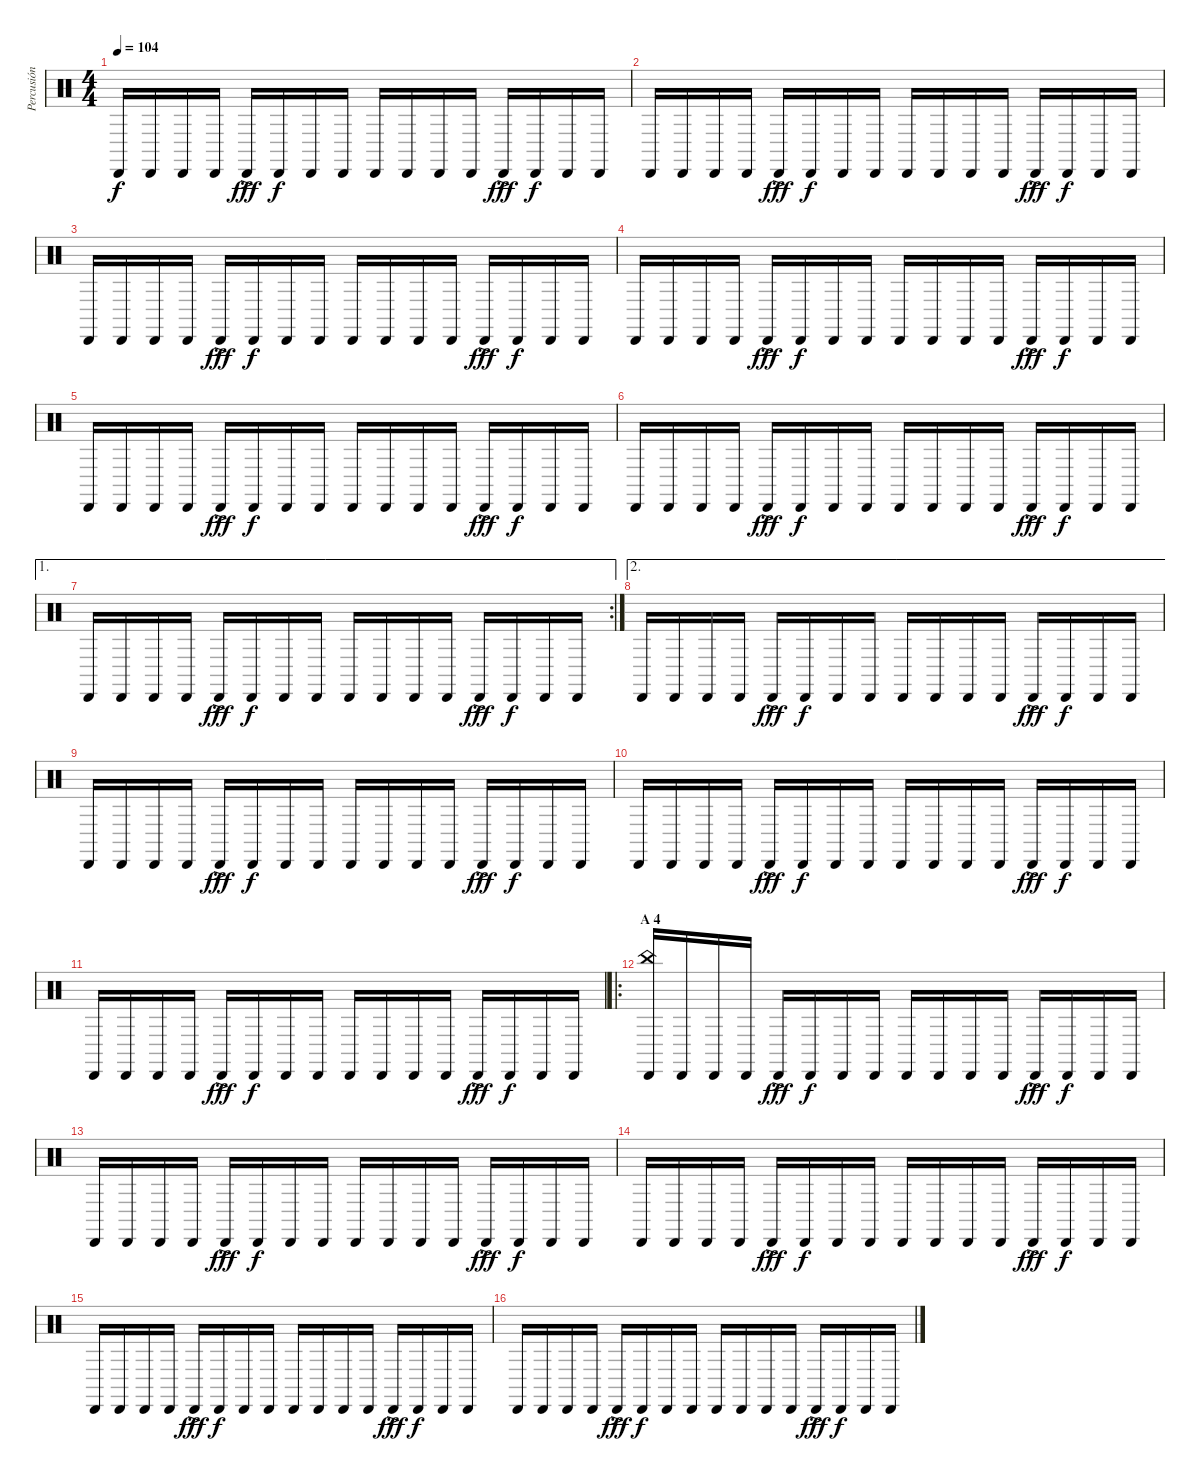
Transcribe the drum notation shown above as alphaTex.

\track ("Percusión" "Percusión") {instrument percussion}
\staff {score}
\articulation defaults
\ts (4 4)
\tempo 104
\clef neutral
\ks c "Cabasa (hit)".16{dy f} "Cabasa (hit)".16 "Cabasa (hit)".16 "Cabasa (hit)".16 "Cabasa (hit)"{ac}.16{dy fff} "Cabasa (hit)".16{dy f} "Cabasa (hit)".16 "Cabasa (hit)".16 "Cabasa (hit)".16 "Cabasa (hit)".16 "Cabasa (hit)".16 "Cabasa (hit)".16 "Cabasa (hit)"{ac}.16{dy fff} "Cabasa (hit)".16{dy f} "Cabasa (hit)".16 "Cabasa (hit)".16
|
"Cabasa (hit)".16 "Cabasa (hit)".16 "Cabasa (hit)".16 "Cabasa (hit)".16 "Cabasa (hit)"{ac}.16{dy fff} "Cabasa (hit)".16{dy f} "Cabasa (hit)".16 "Cabasa (hit)".16 "Cabasa (hit)".16 "Cabasa (hit)".16 "Cabasa (hit)".16 "Cabasa (hit)".16 "Cabasa (hit)"{ac}.16{dy fff} "Cabasa (hit)".16{dy f} "Cabasa (hit)".16 "Cabasa (hit)".16 |
"Cabasa (hit)".16 "Cabasa (hit)".16 "Cabasa (hit)".16 "Cabasa (hit)".16 "Cabasa (hit)"{ac}.16{dy fff} "Cabasa (hit)".16{dy f} "Cabasa (hit)".16 "Cabasa (hit)".16 "Cabasa (hit)".16 "Cabasa (hit)".16 "Cabasa (hit)".16 "Cabasa (hit)".16 "Cabasa (hit)"{ac}.16{dy fff} "Cabasa (hit)".16{dy f} "Cabasa (hit)".16 "Cabasa (hit)".16 |
"Cabasa (hit)".16 "Cabasa (hit)".16 "Cabasa (hit)".16 "Cabasa (hit)".16 "Cabasa (hit)"{ac}.16{dy fff} "Cabasa (hit)".16{dy f} "Cabasa (hit)".16 "Cabasa (hit)".16 "Cabasa (hit)".16 "Cabasa (hit)".16 "Cabasa (hit)".16 "Cabasa (hit)".16 "Cabasa (hit)"{ac}.16{dy fff} "Cabasa (hit)".16{dy f} "Cabasa (hit)".16 "Cabasa (hit)".16 |
"Cabasa (hit)".16 "Cabasa (hit)".16 "Cabasa (hit)".16 "Cabasa (hit)".16 "Cabasa (hit)"{ac}.16{dy fff} "Cabasa (hit)".16{dy f} "Cabasa (hit)".16 "Cabasa (hit)".16 "Cabasa (hit)".16 "Cabasa (hit)".16 "Cabasa (hit)".16 "Cabasa (hit)".16 "Cabasa (hit)"{ac}.16{dy fff} "Cabasa (hit)".16{dy f} "Cabasa (hit)".16 "Cabasa (hit)".16 |
"Cabasa (hit)".16 "Cabasa (hit)".16 "Cabasa (hit)".16 "Cabasa (hit)".16 "Cabasa (hit)"{ac}.16{dy fff} "Cabasa (hit)".16{dy f} "Cabasa (hit)".16 "Cabasa (hit)".16 "Cabasa (hit)".16 "Cabasa (hit)".16 "Cabasa (hit)".16 "Cabasa (hit)".16 "Cabasa (hit)"{ac}.16{dy fff} "Cabasa (hit)".16{dy f} "Cabasa (hit)".16 "Cabasa (hit)".16 |
\ae 1
\rc 2 "Cabasa (hit)".16 "Cabasa (hit)".16 "Cabasa (hit)".16 "Cabasa (hit)".16 "Cabasa (hit)"{ac}.16{dy fff} "Cabasa (hit)".16{dy f} "Cabasa (hit)".16 "Cabasa (hit)".16 "Cabasa (hit)".16 "Cabasa (hit)".16 "Cabasa (hit)".16 "Cabasa (hit)".16 "Cabasa (hit)"{ac}.16{dy fff} "Cabasa (hit)".16{dy f} "Cabasa (hit)".16 "Cabasa (hit)".16
|
\ae 2 "Cabasa (hit)".16 "Cabasa (hit)".16 "Cabasa (hit)".16 "Cabasa (hit)".16 "Cabasa (hit)"{ac}.16{dy fff} "Cabasa (hit)".16{dy f} "Cabasa (hit)".16 "Cabasa (hit)".16 "Cabasa (hit)".16 "Cabasa (hit)".16 "Cabasa (hit)".16 "Cabasa (hit)".16 "Cabasa (hit)"{ac}.16{dy fff} "Cabasa (hit)".16{dy f} "Cabasa (hit)".16 "Cabasa (hit)".16
|
"Cabasa (hit)".16 "Cabasa (hit)".16 "Cabasa (hit)".16 "Cabasa (hit)".16 "Cabasa (hit)"{ac}.16{dy fff} "Cabasa (hit)".16{dy f} "Cabasa (hit)".16 "Cabasa (hit)".16 "Cabasa (hit)".16 "Cabasa (hit)".16 "Cabasa (hit)".16 "Cabasa (hit)".16 "Cabasa (hit)"{ac}.16{dy fff} "Cabasa (hit)".16{dy f} "Cabasa (hit)".16 "Cabasa (hit)".16 |
"Cabasa (hit)".16 "Cabasa (hit)".16 "Cabasa (hit)".16 "Cabasa (hit)".16 "Cabasa (hit)"{ac}.16{dy fff} "Cabasa (hit)".16{dy f} "Cabasa (hit)".16 "Cabasa (hit)".16 "Cabasa (hit)".16 "Cabasa (hit)".16 "Cabasa (hit)".16 "Cabasa (hit)".16 "Cabasa (hit)"{ac}.16{dy fff} "Cabasa (hit)".16{dy f} "Cabasa (hit)".16 "Cabasa (hit)".16 |
"Cabasa (hit)".16 "Cabasa (hit)".16 "Cabasa (hit)".16 "Cabasa (hit)".16 "Cabasa (hit)"{ac}.16{dy fff} "Cabasa (hit)".16{dy f} "Cabasa (hit)".16 "Cabasa (hit)".16 "Cabasa (hit)".16 "Cabasa (hit)".16 "Cabasa (hit)".16 "Cabasa (hit)".16 "Cabasa (hit)"{ac}.16{dy fff} "Cabasa (hit)".16{dy f} "Cabasa (hit)".16 "Cabasa (hit)".16 |
\ro
\section ("" "A 4")
("Cabasa (hit)" "China (hit)").16 "Cabasa (hit)".16 "Cabasa (hit)".16 "Cabasa (hit)".16 "Cabasa (hit)"{ac}.16{dy fff} "Cabasa (hit)".16{dy f} "Cabasa (hit)".16 "Cabasa (hit)".16 "Cabasa (hit)".16 "Cabasa (hit)".16 "Cabasa (hit)".16 "Cabasa (hit)".16 "Cabasa (hit)"{ac}.16{dy fff} "Cabasa (hit)".16{dy f} "Cabasa (hit)".16 "Cabasa (hit)".16 |
"Cabasa (hit)".16 "Cabasa (hit)".16 "Cabasa (hit)".16 "Cabasa (hit)".16 "Cabasa (hit)"{ac}.16{dy fff} "Cabasa (hit)".16{dy f} "Cabasa (hit)".16 "Cabasa (hit)".16 "Cabasa (hit)".16 "Cabasa (hit)".16 "Cabasa (hit)".16 "Cabasa (hit)".16 "Cabasa (hit)"{ac}.16{dy fff} "Cabasa (hit)".16{dy f} "Cabasa (hit)".16 "Cabasa (hit)".16 |
"Cabasa (hit)".16 "Cabasa (hit)".16 "Cabasa (hit)".16 "Cabasa (hit)".16 "Cabasa (hit)"{ac}.16{dy fff} "Cabasa (hit)".16{dy f} "Cabasa (hit)".16 "Cabasa (hit)".16 "Cabasa (hit)".16 "Cabasa (hit)".16 "Cabasa (hit)".16 "Cabasa (hit)".16 "Cabasa (hit)"{ac}.16{dy fff} "Cabasa (hit)".16{dy f} "Cabasa (hit)".16 "Cabasa (hit)".16 |
"Cabasa (hit)".16 "Cabasa (hit)".16 "Cabasa (hit)".16 "Cabasa (hit)".16 "Cabasa (hit)"{ac}.16{dy fff} "Cabasa (hit)".16{dy f} "Cabasa (hit)".16 "Cabasa (hit)".16 "Cabasa (hit)".16 "Cabasa (hit)".16 "Cabasa (hit)".16 "Cabasa (hit)".16 "Cabasa (hit)"{ac}.16{dy fff} "Cabasa (hit)".16{dy f} "Cabasa (hit)".16 "Cabasa (hit)".16 |
"Cabasa (hit)".16 "Cabasa (hit)".16 "Cabasa (hit)".16 "Cabasa (hit)".16 "Cabasa (hit)"{ac}.16{dy fff} "Cabasa (hit)".16{dy f} "Cabasa (hit)".16 "Cabasa (hit)".16 "Cabasa (hit)".16 "Cabasa (hit)".16 "Cabasa (hit)".16 "Cabasa (hit)".16 "Cabasa (hit)"{ac}.16{dy fff} "Cabasa (hit)".16{dy f} "Cabasa (hit)".16 "Cabasa (hit)".16
